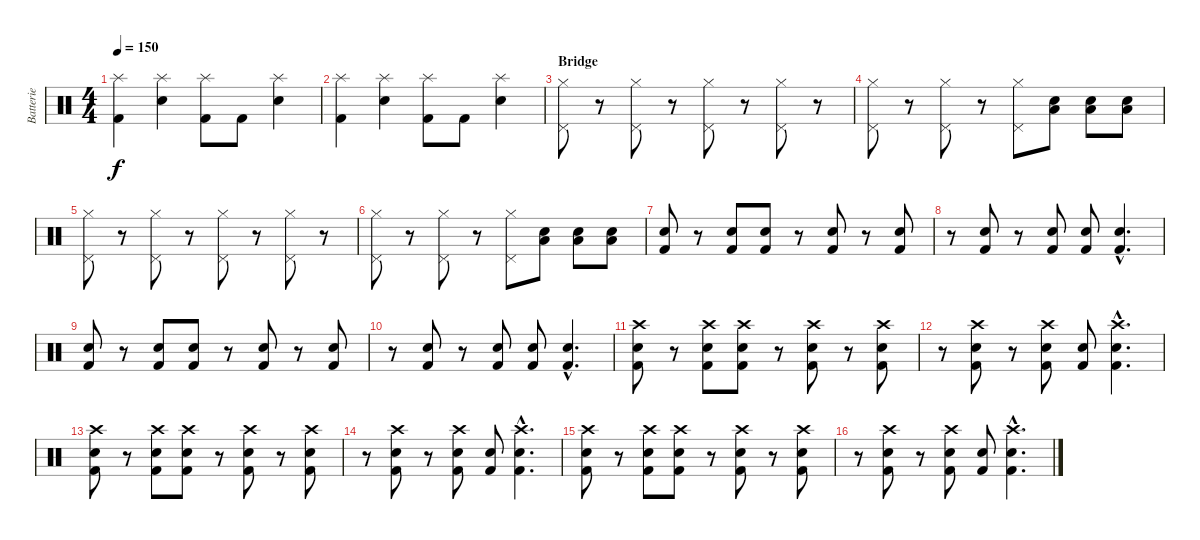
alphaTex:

\track ("Batterie" "Batterie") {instrument percussion}
\staff {score}
\articulation defaults
\ts (4 4)
\tempo 150
\clef neutral
\ks c
("Splash (hit)" "Kick (hit) 2").4{dy f} ("Splash (hit)" "Electric Snare (hit)").4 ("Splash (hit)" "Kick (hit) 2").8 "Kick (hit) 2".8 ("Splash (hit)" "Electric Snare (hit)").4 |
("Splash (hit)" "Kick (hit) 2").4 ("Splash (hit)" "Electric Snare (hit)").4 ("Splash (hit)" "Kick (hit) 2").8 "Kick (hit) 2".8 ("Splash (hit)" "Electric Snare (hit)").4 |
\section ("" "Bridge")
("Hi-Hat (closed)" "Pedal Hi-Hat (hit)").8 r.8 ("Hi-Hat (closed)" "Pedal Hi-Hat (hit)").8 r.8 ("Hi-Hat (closed)" "Pedal Hi-Hat (hit)").8 r.8 ("Hi-Hat (closed)" "Pedal Hi-Hat (hit)").8 r.8 |
("Hi-Hat (closed)" "Pedal Hi-Hat (hit)").8 r.8 ("Hi-Hat (closed)" "Pedal Hi-Hat (hit)").8 r.8 ("Hi-Hat (closed)" "Pedal Hi-Hat (hit)").8 ("Electric Snare (hit)" "Low Tom (hit)").8 ("Electric Snare (hit)" "Low Tom (hit)").8 ("Electric Snare (hit)" "Low Tom (hit)").8 |
("Hi-Hat (closed)" "Pedal Hi-Hat (hit)").8 r.8 ("Hi-Hat (closed)" "Pedal Hi-Hat (hit)").8 r.8 ("Hi-Hat (closed)" "Pedal Hi-Hat (hit)").8 r.8 ("Hi-Hat (closed)" "Pedal Hi-Hat (hit)").8 r.8 |
("Hi-Hat (closed)" "Pedal Hi-Hat (hit)").8 r.8 ("Hi-Hat (closed)" "Pedal Hi-Hat (hit)").8 r.8 ("Hi-Hat (closed)" "Pedal Hi-Hat (hit)").8 ("Electric Snare (hit)" "Low Tom (hit)").8 ("Electric Snare (hit)" "Low Tom (hit)").8 ("Electric Snare (hit)" "Low Tom (hit)").8 |
("Electric Snare (hit)" "Kick (hit) 2").8 r.8 ("Electric Snare (hit)" "Kick (hit) 2").8 ("Electric Snare (hit)" "Kick (hit) 2").8 r.8 ("Electric Snare (hit)" "Kick (hit) 2").8 r.8 ("Electric Snare (hit)" "Kick (hit) 2").8 |
r.8 ("Electric Snare (hit)" "Kick (hit) 2").8 r.8 ("Electric Snare (hit)" "Kick (hit) 2").8 ("Electric Snare (hit)" "Kick (hit) 2").8 ("Electric Snare (hit)"{hac} "Kick (hit) 2"{hac}).4{d} |
("Electric Snare (hit)" "Kick (hit) 2").8 r.8 ("Electric Snare (hit)" "Kick (hit) 2").8 ("Electric Snare (hit)" "Kick (hit) 2").8 r.8 ("Electric Snare (hit)" "Kick (hit) 2").8 r.8 ("Electric Snare (hit)" "Kick (hit) 2").8 |
r.8 ("Electric Snare (hit)" "Kick (hit) 2").8 r.8 ("Electric Snare (hit)" "Kick (hit) 2").8 ("Electric Snare (hit)" "Kick (hit) 2").8 ("Electric Snare (hit)"{hac} "Kick (hit) 2"{hac}).4{d} |
("Crash high (hit)" "Electric Snare (hit)" "Kick (hit) 2").8 r.8 ("Crash high (hit)" "Electric Snare (hit)" "Kick (hit) 2").8 ("Crash high (hit)" "Electric Snare (hit)" "Kick (hit) 2").8 r.8 ("Crash high (hit)" "Electric Snare (hit)" "Kick (hit) 2").8 r.8 ("Crash high (hit)" "Electric Snare (hit)" "Kick (hit) 2").8 |
r.8 ("Crash high (hit)" "Electric Snare (hit)" "Kick (hit) 2").8 r.8 ("Crash high (hit)" "Electric Snare (hit)" "Kick (hit) 2").8 ("Electric Snare (hit)" "Kick (hit) 2").8 ("Crash high (hit)"{hac} "Electric Snare (hit)"{hac} "Kick (hit) 2"{hac}).4{d} |
("Crash high (hit)" "Electric Snare (hit)" "Kick (hit) 2").8 r.8 ("Crash high (hit)" "Electric Snare (hit)" "Kick (hit) 2").8 ("Crash high (hit)" "Electric Snare (hit)" "Kick (hit) 2").8 r.8 ("Crash high (hit)" "Electric Snare (hit)" "Kick (hit) 2").8 r.8 ("Crash high (hit)" "Electric Snare (hit)" "Kick (hit) 2").8 |
r.8 ("Crash high (hit)" "Electric Snare (hit)" "Kick (hit) 2").8 r.8 ("Crash high (hit)" "Electric Snare (hit)" "Kick (hit) 2").8 ("Electric Snare (hit)" "Kick (hit) 2").8 ("Crash high (hit)"{hac} "Electric Snare (hit)"{hac} "Kick (hit) 2"{hac}).4{d} |
("Crash high (hit)" "Electric Snare (hit)" "Kick (hit) 2").8 r.8 ("Crash high (hit)" "Electric Snare (hit)" "Kick (hit) 2").8 ("Crash high (hit)" "Electric Snare (hit)" "Kick (hit) 2").8 r.8 ("Crash high (hit)" "Electric Snare (hit)" "Kick (hit) 2").8 r.8 ("Crash high (hit)" "Electric Snare (hit)" "Kick (hit) 2").8 |
r.8 ("Crash high (hit)" "Electric Snare (hit)" "Kick (hit) 2").8 r.8 ("Crash high (hit)" "Electric Snare (hit)" "Kick (hit) 2").8 ("Electric Snare (hit)" "Kick (hit) 2").8 ("Crash high (hit)"{hac} "Electric Snare (hit)"{hac} "Kick (hit) 2"{hac}).4{d}
